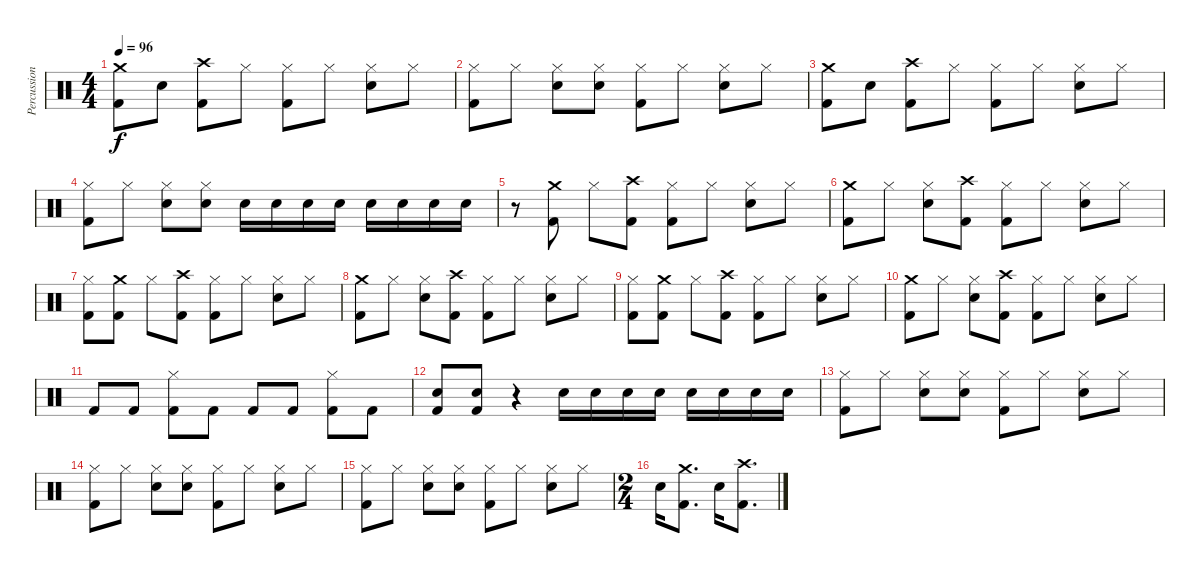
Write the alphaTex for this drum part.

\track ("Percussion" "Percussion") {instrument percussion}
\staff {score}
\articulation defaults
\ts (4 4)
\tempo 96
\clef neutral
\ks c
("Crash medium (hit)" "Kick (hit) 2").8{dy f} "Snare (hit) 2".8 ("Crash high (hit)" "Kick (hit) 2").8 "Hi-Hat (closed)".8 ("Hi-Hat (closed)" "Kick (hit) 2").8 "Hi-Hat (closed)".8 ("Hi-Hat (closed)" "Snare (hit) 2").8 "Hi-Hat (closed)".8 |
("Hi-Hat (closed)" "Kick (hit) 2").8 "Hi-Hat (closed)".8 ("Hi-Hat (closed)" "Snare (hit) 2").8 ("Hi-Hat (closed)" "Snare (hit) 2").8 ("Hi-Hat (closed)" "Kick (hit) 2").8 "Hi-Hat (closed)".8 ("Hi-Hat (closed)" "Snare (hit) 2").8 "Hi-Hat (closed)".8 |
("Crash medium (hit)" "Kick (hit) 2").8 "Snare (hit) 2".8 ("Crash high (hit)" "Kick (hit) 2").8 "Hi-Hat (closed)".8 ("Hi-Hat (closed)" "Kick (hit) 2").8 "Hi-Hat (closed)".8 ("Hi-Hat (closed)" "Snare (hit) 2").8 "Hi-Hat (closed)".8 |
("Hi-Hat (closed)" "Kick (hit) 2").8 "Hi-Hat (closed)".8 ("Hi-Hat (closed)" "Snare (hit) 2").8 ("Hi-Hat (closed)" "Snare (hit) 2").8 "Snare (hit) 2".16 "Snare (hit) 2".16 "Snare (hit) 2".16 "Snare (hit) 2".16 "Snare (hit) 2".16 "Snare (hit) 2".16 "Snare (hit) 2".16 "Snare (hit) 2".16 |
r.8 ("Crash medium (hit)" "Kick (hit) 2").8 "Hi-Hat (closed)".8 ("Crash high (hit)" "Kick (hit) 2").8 ("Hi-Hat (closed)" "Kick (hit) 2").8 "Hi-Hat (closed)".8 ("Hi-Hat (closed)" "Snare (hit) 2").8 "Hi-Hat (closed)".8 |
("Crash medium (hit)" "Kick (hit) 2").8 "Hi-Hat (closed)".8 ("Hi-Hat (closed)" "Snare (hit) 2").8 ("Crash high (hit)" "Kick (hit) 2").8 ("Hi-Hat (closed)" "Kick (hit) 2").8 "Hi-Hat (closed)".8 ("Hi-Hat (closed)" "Snare (hit) 2").8 "Hi-Hat (closed)".8 |
("Kick (hit) 2" "Hi-Hat (closed)").8 ("Crash medium (hit)" "Kick (hit) 2").8 "Hi-Hat (closed)".8 ("Crash high (hit)" "Kick (hit) 2").8 ("Hi-Hat (closed)" "Kick (hit) 2").8 "Hi-Hat (closed)".8 ("Hi-Hat (closed)" "Snare (hit) 2").8 "Hi-Hat (closed)".8 |
("Crash medium (hit)" "Kick (hit) 2").8 "Hi-Hat (closed)".8 ("Hi-Hat (closed)" "Snare (hit) 2").8 ("Crash high (hit)" "Kick (hit) 2").8 ("Hi-Hat (closed)" "Kick (hit) 2").8 "Hi-Hat (closed)".8 ("Hi-Hat (closed)" "Snare (hit) 2").8 "Hi-Hat (closed)".8 |
("Kick (hit) 2" "Hi-Hat (closed)").8 ("Crash medium (hit)" "Kick (hit) 2").8 "Hi-Hat (closed)".8 ("Crash high (hit)" "Kick (hit) 2").8 ("Hi-Hat (closed)" "Kick (hit) 2").8 "Hi-Hat (closed)".8 ("Hi-Hat (closed)" "Snare (hit) 2").8 "Hi-Hat (closed)".8 |
("Crash medium (hit)" "Kick (hit) 2").8 "Hi-Hat (closed)".8 ("Hi-Hat (closed)" "Snare (hit) 2").8 ("Crash high (hit)" "Kick (hit) 2").8 ("Hi-Hat (closed)" "Kick (hit) 2").8 "Hi-Hat (closed)".8 ("Hi-Hat (closed)" "Snare (hit) 2").8 "Hi-Hat (closed)".8 |
"Kick (hit) 2".8 "Kick (hit) 2".8 ("Hi-Hat (closed)" "Kick (hit) 2").8 "Kick (hit) 2".8 "Kick (hit) 2".8 "Kick (hit) 2".8 ("Hi-Hat (closed)" "Kick (hit) 2").8 "Kick (hit) 2".8 |
("Snare (hit) 2" "Kick (hit) 2").8 ("Snare (hit) 2" "Kick (hit) 2").8 r.4 "Snare (hit) 2".16 "Snare (hit) 2".16 "Snare (hit) 2".16 "Snare (hit) 2".16 "Snare (hit) 2".16 "Snare (hit) 2".16 "Snare (hit) 2".16 "Snare (hit) 2".16 |
("Hi-Hat (closed)" "Kick (hit) 2").8 "Hi-Hat (closed)".8 ("Hi-Hat (closed)" "Snare (hit) 2").8 ("Hi-Hat (closed)" "Snare (hit) 2").8 ("Hi-Hat (closed)" "Kick (hit) 2").8 "Hi-Hat (closed)".8 ("Hi-Hat (closed)" "Snare (hit) 2").8 "Hi-Hat (closed)".8 |
("Hi-Hat (closed)" "Kick (hit) 2").8 "Hi-Hat (closed)".8 ("Hi-Hat (closed)" "Snare (hit) 2").8 ("Hi-Hat (closed)" "Snare (hit) 2").8 ("Hi-Hat (closed)" "Kick (hit) 2").8 "Hi-Hat (closed)".8 ("Hi-Hat (closed)" "Snare (hit) 2").8 "Hi-Hat (closed)".8 |
("Hi-Hat (closed)" "Kick (hit) 2").8 "Hi-Hat (closed)".8 ("Hi-Hat (closed)" "Snare (hit) 2").8 ("Hi-Hat (closed)" "Snare (hit) 2").8 ("Hi-Hat (closed)" "Kick (hit) 2").8 "Hi-Hat (closed)".8 ("Hi-Hat (closed)" "Snare (hit) 2").8 "Hi-Hat (closed)".8 |
\ts (2 4)
"Snare (hit) 2".16 ("Crash medium (hit)" "Kick (hit) 2").8{d} "Snare (hit) 2".16 ("Crash high (hit)" "Kick (hit) 2").8{d}
